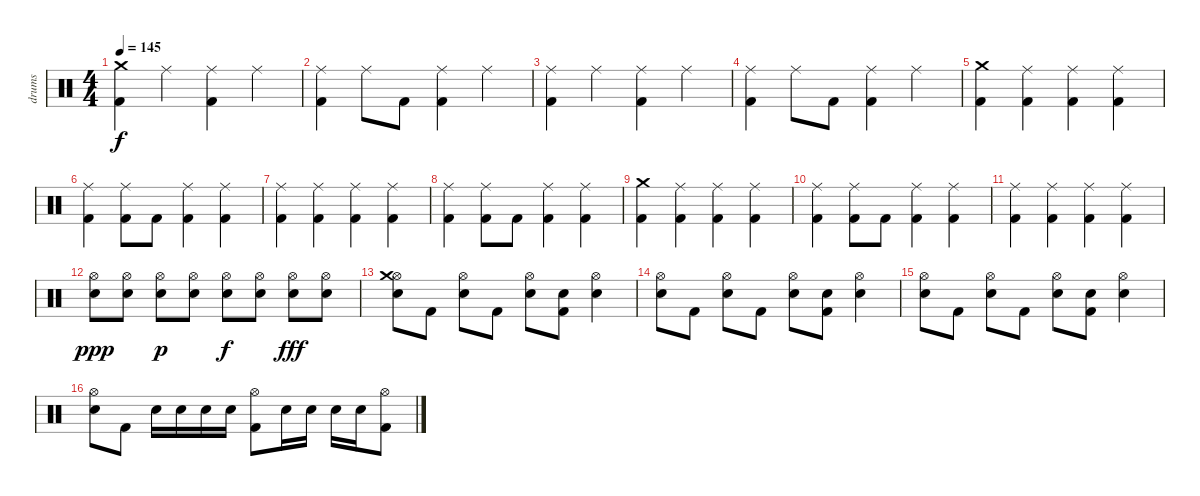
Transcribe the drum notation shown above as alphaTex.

\track ("drums" "drums") {instrument percussion}
\staff {score}
\articulation defaults
\ts (4 4)
\tempo 145
\clef neutral
\ks c
("Crash medium (hit)" "Kick (hit) 2").4{dy f} "Ride (middle)".4 ("Ride (middle)" "Kick (hit) 2").4 "Ride (middle)".4 |
("Ride (middle)" "Kick (hit) 2").4 "Ride (middle)".8 "Kick (hit) 2".8 ("Ride (middle)" "Kick (hit) 2").4 "Ride (middle)".4 |
("Ride (middle)" "Kick (hit) 2").4 "Ride (middle)".4 ("Ride (middle)" "Kick (hit) 2").4 "Ride (middle)".4 |
("Ride (middle)" "Kick (hit) 2").4 "Ride (middle)".8 "Kick (hit) 2".8 ("Ride (middle)" "Kick (hit) 2").4 "Ride (middle)".4 |
("Crash medium (hit)" "Kick (hit) 2").4 ("Ride (middle)" "Kick (hit) 2").4 ("Ride (middle)" "Kick (hit) 2").4 ("Ride (middle)" "Kick (hit) 2").4 |
("Ride (middle)" "Kick (hit) 2").4 ("Ride (middle)" "Kick (hit) 2").8 "Kick (hit) 2".8 ("Ride (middle)" "Kick (hit) 2").4 ("Ride (middle)" "Kick (hit) 2").4 |
("Ride (middle)" "Kick (hit) 2").4 ("Ride (middle)" "Kick (hit) 2").4 ("Ride (middle)" "Kick (hit) 2").4 ("Ride (middle)" "Kick (hit) 2").4 |
("Ride (middle)" "Kick (hit) 2").4 ("Ride (middle)" "Kick (hit) 2").8 "Kick (hit) 2".8 ("Ride (middle)" "Kick (hit) 2").4 ("Ride (middle)" "Kick (hit) 2").4 |
("Crash medium (hit)" "Kick (hit) 2").4 ("Ride (middle)" "Kick (hit) 2").4 ("Ride (middle)" "Kick (hit) 2").4 ("Ride (middle)" "Kick (hit) 2").4 |
("Ride (middle)" "Kick (hit) 2").4 ("Ride (middle)" "Kick (hit) 2").8 "Kick (hit) 2".8 ("Ride (middle)" "Kick (hit) 2").4 ("Ride (middle)" "Kick (hit) 2").4 |
("Ride (middle)" "Kick (hit) 2").4 ("Ride (middle)" "Kick (hit) 2").4 ("Ride (middle)" "Kick (hit) 2").4 ("Ride (middle)" "Kick (hit) 2").4 |
("Hi-Hat (open)" "Snare (hit) 2").8{dy ppp} ("Hi-Hat (open)" "Snare (hit) 2").8 ("Hi-Hat (open)" "Snare (hit) 2").8{dy p} ("Hi-Hat (open)" "Snare (hit) 2").8 ("Hi-Hat (open)" "Snare (hit) 2").8{dy f} ("Hi-Hat (open)" "Snare (hit) 2").8 ("Hi-Hat (open)" "Snare (hit) 2").8{dy fff} ("Hi-Hat (open)" "Snare (hit) 2").8 |
("Hi-Hat (open)" "Crash medium (hit)" "Snare (hit) 2").8 "Kick (hit) 2".8 ("Hi-Hat (open)" "Snare (hit) 2").8 "Kick (hit) 2".8 ("Hi-Hat (open)" "Snare (hit) 2").8 ("Snare (hit) 2" "Kick (hit) 2").8 ("Hi-Hat (open)" "Snare (hit) 2").4 |
("Hi-Hat (open)" "Snare (hit) 2").8 "Kick (hit) 2".8 ("Hi-Hat (open)" "Snare (hit) 2").8 "Kick (hit) 2".8 ("Hi-Hat (open)" "Snare (hit) 2").8 ("Snare (hit) 2" "Kick (hit) 2").8 ("Hi-Hat (open)" "Snare (hit) 2").4 |
("Hi-Hat (open)" "Snare (hit) 2").8 "Kick (hit) 2".8 ("Hi-Hat (open)" "Snare (hit) 2").8 "Kick (hit) 2".8 ("Hi-Hat (open)" "Snare (hit) 2").8 ("Snare (hit) 2" "Kick (hit) 2").8 ("Hi-Hat (open)" "Snare (hit) 2").4 |
("Hi-Hat (open)" "Snare (hit) 2").8 "Kick (hit) 2".8 "Snare (hit) 2".16 "Snare (hit) 2".16 "Snare (hit) 2".16 "Snare (hit) 2".16 ("Hi-Hat (open)" "Kick (hit) 2").8 "Snare (hit) 2".16 "Snare (hit) 2".16 "Snare (hit) 2".16 "Snare (hit) 2".16 ("Hi-Hat (open)" "Kick (hit) 2").8
